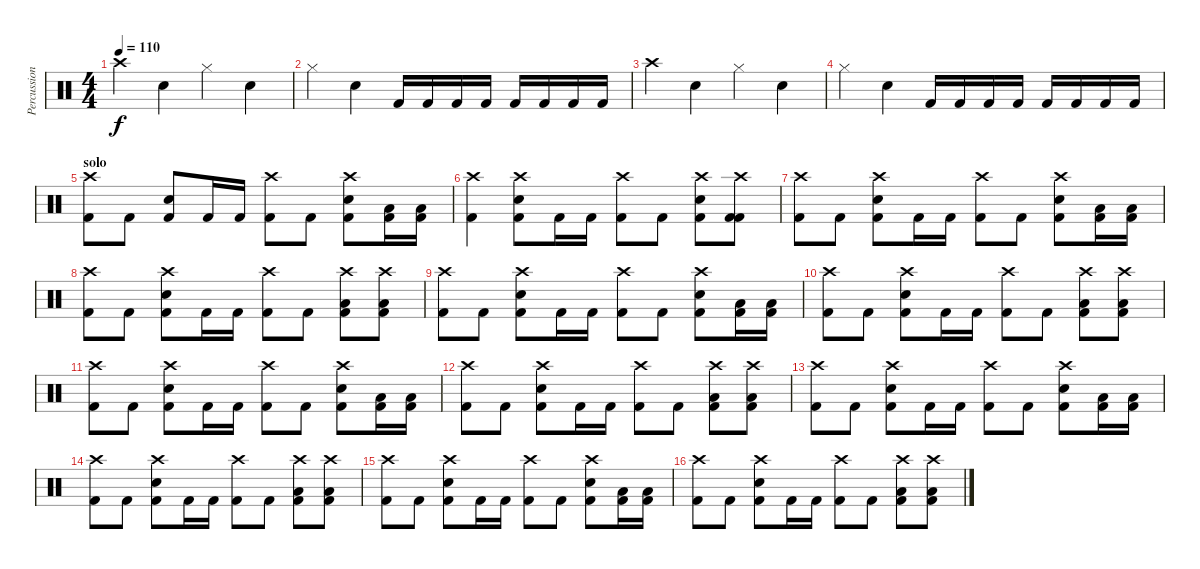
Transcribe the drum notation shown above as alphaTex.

\track ("Percussion" "Percussion") {instrument percussion}
\staff {score}
\articulation defaults
\ts (4 4)
\tempo 110
\clef neutral
\ks c "Crash high (hit)".4{dy f} "Snare (hit) 2".4 "Hi-Hat (closed)".4 "Snare (hit) 2".4
|
"Hi-Hat (closed)".4 "Snare (hit) 2".4 "Kick (hit) 2".16 "Kick (hit) 2".16 "Kick (hit) 2".16 "Kick (hit) 2".16 "Kick (hit) 2".16 "Kick (hit) 2".16 "Kick (hit) 2".16 "Kick (hit) 2".16 |
"Crash high (hit)".4 "Snare (hit) 2".4 "Hi-Hat (closed)".4 "Snare (hit) 2".4 |
"Hi-Hat (closed)".4 "Snare (hit) 2".4 "Kick (hit) 2".16 "Kick (hit) 2".16 "Kick (hit) 2".16 "Kick (hit) 2".16 "Kick (hit) 2".16 "Kick (hit) 2".16 "Kick (hit) 2".16 "Kick (hit) 2".16 |
\section ("" "solo")
("Crash high (hit)" "Kick (hit) 2").8 "Kick (hit) 2".8 ("Snare (hit) 2" "Kick (hit) 2").8 "Kick (hit) 2".16 "Kick (hit) 2".16 ("Crash high (hit)" "Kick (hit) 2").8 "Kick (hit) 2".8 ("Crash high (hit)" "Snare (hit) 2" "Kick (hit) 2").8 ("Low Tom (hit)" "Kick (hit) 2").16 ("Low Floor Tom (hit)" "Kick (hit) 2").16 |
("Crash high (hit)" "Kick (hit) 2").4 ("Crash high (hit)" "Snare (hit) 2" "Kick (hit) 2").8 "Kick (hit) 2".16 "Kick (hit) 2".16 ("Crash high (hit)" "Kick (hit) 2").8 "Kick (hit) 2".8 ("Crash high (hit)" "Snare (hit) 2" "Kick (hit) 2").8 ("Crash high (hit)" "Kick (hit) 2" "Kick (hit) 2").8 |
("Crash high (hit)" "Kick (hit) 2").8 "Kick (hit) 2".8 ("Crash high (hit)" "Snare (hit) 2" "Kick (hit) 2").8 "Kick (hit) 2".16 "Kick (hit) 2".16 ("Crash high (hit)" "Kick (hit) 2").8 "Kick (hit) 2".8 ("Crash high (hit)" "Snare (hit) 2" "Kick (hit) 2").8 ("Low Tom (hit)" "Kick (hit) 2").16 ("Low Floor Tom (hit)" "Kick (hit) 2").16 |
("Crash high (hit)" "Kick (hit) 2").8 "Kick (hit) 2".8 ("Crash high (hit)" "Snare (hit) 2" "Kick (hit) 2").8 "Kick (hit) 2".16 "Kick (hit) 2".16 ("Crash high (hit)" "Kick (hit) 2").8 "Kick (hit) 2".8 ("Crash high (hit)" "Low Tom (hit)" "Kick (hit) 2").8 ("Crash high (hit)" "Low Floor Tom (hit)" "Kick (hit) 2").8 |
("Crash high (hit)" "Kick (hit) 2").8 "Kick (hit) 2".8 ("Crash high (hit)" "Snare (hit) 2" "Kick (hit) 2").8 "Kick (hit) 2".16 "Kick (hit) 2".16 ("Crash high (hit)" "Kick (hit) 2").8 "Kick (hit) 2".8 ("Crash high (hit)" "Snare (hit) 2" "Kick (hit) 2").8 ("Low Tom (hit)" "Kick (hit) 2").16 ("Low Floor Tom (hit)" "Kick (hit) 2").16 |
("Crash high (hit)" "Kick (hit) 2").8 "Kick (hit) 2".8 ("Crash high (hit)" "Snare (hit) 2" "Kick (hit) 2").8 "Kick (hit) 2".16 "Kick (hit) 2".16 ("Crash high (hit)" "Kick (hit) 2").8 "Kick (hit) 2".8 ("Crash high (hit)" "Low Tom (hit)" "Kick (hit) 2").8 ("Crash high (hit)" "Low Floor Tom (hit)" "Kick (hit) 2").8 |
("Crash high (hit)" "Kick (hit) 2").8 "Kick (hit) 2".8 ("Crash high (hit)" "Snare (hit) 2" "Kick (hit) 2").8 "Kick (hit) 2".16 "Kick (hit) 2".16 ("Crash high (hit)" "Kick (hit) 2").8 "Kick (hit) 2".8 ("Crash high (hit)" "Snare (hit) 2" "Kick (hit) 2").8 ("Low Tom (hit)" "Kick (hit) 2").16 ("Low Floor Tom (hit)" "Kick (hit) 2").16 |
("Crash high (hit)" "Kick (hit) 2").8 "Kick (hit) 2".8 ("Crash high (hit)" "Snare (hit) 2" "Kick (hit) 2").8 "Kick (hit) 2".16 "Kick (hit) 2".16 ("Crash high (hit)" "Kick (hit) 2").8 "Kick (hit) 2".8 ("Crash high (hit)" "Low Tom (hit)" "Kick (hit) 2").8 ("Crash high (hit)" "Low Floor Tom (hit)" "Kick (hit) 2").8 |
("Crash high (hit)" "Kick (hit) 2").8 "Kick (hit) 2".8 ("Crash high (hit)" "Snare (hit) 2" "Kick (hit) 2").8 "Kick (hit) 2".16 "Kick (hit) 2".16 ("Crash high (hit)" "Kick (hit) 2").8 "Kick (hit) 2".8 ("Crash high (hit)" "Snare (hit) 2" "Kick (hit) 2").8 ("Low Tom (hit)" "Kick (hit) 2").16 ("Low Floor Tom (hit)" "Kick (hit) 2").16 |
("Crash high (hit)" "Kick (hit) 2").8 "Kick (hit) 2".8 ("Crash high (hit)" "Snare (hit) 2" "Kick (hit) 2").8 "Kick (hit) 2".16 "Kick (hit) 2".16 ("Crash high (hit)" "Kick (hit) 2").8 "Kick (hit) 2".8 ("Crash high (hit)" "Low Tom (hit)" "Kick (hit) 2").8 ("Crash high (hit)" "Low Floor Tom (hit)" "Kick (hit) 2").8 |
("Crash high (hit)" "Kick (hit) 2").8 "Kick (hit) 2".8 ("Crash high (hit)" "Snare (hit) 2" "Kick (hit) 2").8 "Kick (hit) 2".16 "Kick (hit) 2".16 ("Crash high (hit)" "Kick (hit) 2").8 "Kick (hit) 2".8 ("Crash high (hit)" "Snare (hit) 2" "Kick (hit) 2").8 ("Low Tom (hit)" "Kick (hit) 2").16 ("Low Floor Tom (hit)" "Kick (hit) 2").16 |
("Crash high (hit)" "Kick (hit) 2").8 "Kick (hit) 2".8 ("Crash high (hit)" "Snare (hit) 2" "Kick (hit) 2").8 "Kick (hit) 2".16 "Kick (hit) 2".16 ("Crash high (hit)" "Kick (hit) 2").8 "Kick (hit) 2".8 ("Crash high (hit)" "Low Tom (hit)" "Kick (hit) 2").8 ("Crash high (hit)" "Low Floor Tom (hit)" "Kick (hit) 2").8
